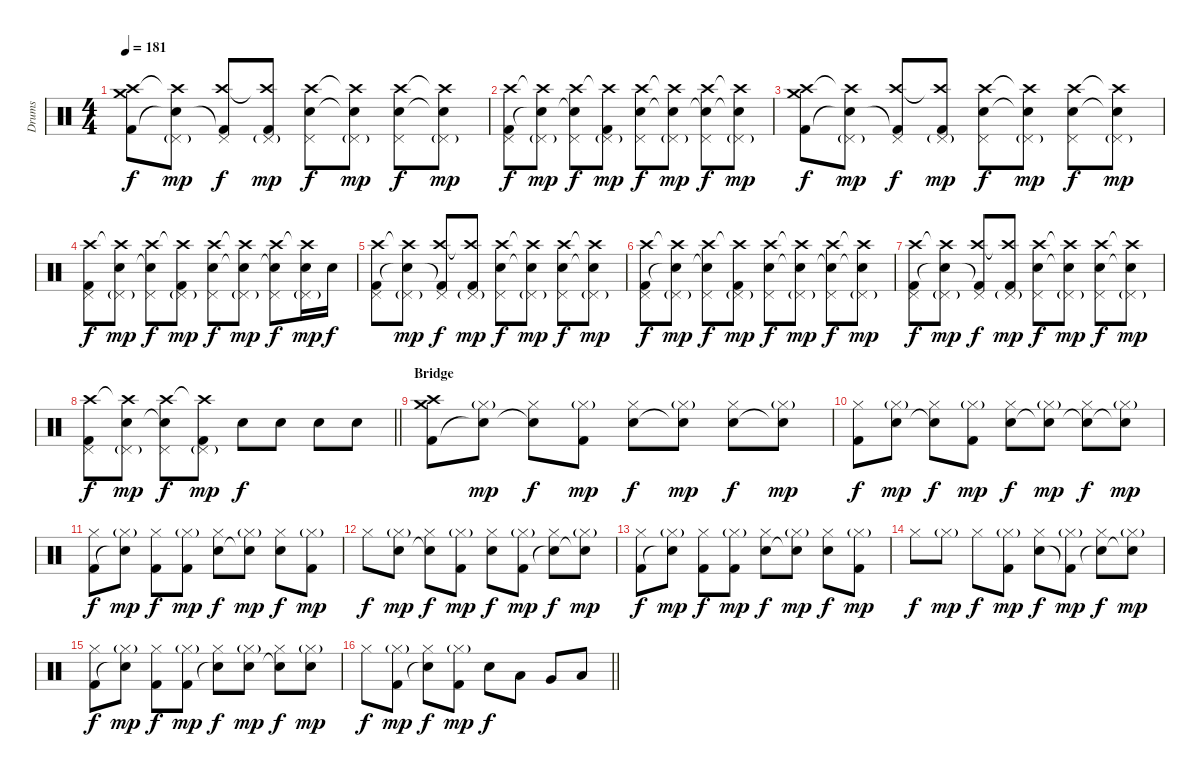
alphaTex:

\track ("Drums" "Drums") {instrument percussion}
\staff {score}
\articulation defaults
\ts (4 4)
\tempo 181
\clef neutral
\ks c
("Kick (hit) 2" "Crash medium (hit)" "Crash high (hit)").8{dy f} ("Snare (hit)"{t} "Pedal Hi-Hat (hit)"{g} "Crash high (hit)"{t}).8{dy mp} ("Kick (hit) 2"{t} "Pedal Hi-Hat (hit)" "Crash high (hit)").8{dy f} ("Kick (hit) 2" "Pedal Hi-Hat (hit)"{g} "Crash high (hit)"{t}).8{dy mp} ("Electric Snare (hit)" "Pedal Hi-Hat (hit)" "Crash high (hit)").8{dy f} ("Electric Snare (hit)"{t} "Pedal Hi-Hat (hit)"{g} "Crash high (hit)"{t}).8{dy mp} ("Electric Snare (hit)" "Pedal Hi-Hat (hit)" "Crash high (hit)").8{dy f} ("Snare (hit)"{t} "Pedal Hi-Hat (hit)"{g} "Crash high (hit)"{t}).8{dy mp} |
("Kick (hit) 2" "Pedal Hi-Hat (hit)" "Crash high (hit)").8{dy f} ("Snare (hit)"{t} "Pedal Hi-Hat (hit)"{g} "Crash high (hit)"{t}).8{dy mp} ("Snare (hit)"{t} "Pedal Hi-Hat (hit)" "Crash high (hit)").8{dy f} ("Kick (hit) 2" "Pedal Hi-Hat (hit)"{g} "Crash high (hit)"{t}).8{dy mp} ("Electric Snare (hit)" "Pedal Hi-Hat (hit)" "Crash high (hit)").8{dy f} ("Snare (hit)"{t} "Pedal Hi-Hat (hit)"{g} "Crash high (hit)"{t}).8{dy mp} ("Snare (hit)"{t} "Pedal Hi-Hat (hit)" "Crash high (hit)").8{dy f} ("Snare (hit)"{t} "Pedal Hi-Hat (hit)"{g} "Crash high (hit)"{t}).8{dy mp} |
("Kick (hit) 2" "Crash medium (hit)" "Crash high (hit)").8{dy f} ("Snare (hit)"{t} "Pedal Hi-Hat (hit)"{g} "Crash high (hit)"{t}).8{dy mp} ("Kick (hit) 2"{t} "Pedal Hi-Hat (hit)" "Crash high (hit)").8{dy f} ("Kick (hit) 2" "Pedal Hi-Hat (hit)"{g} "Crash high (hit)"{t}).8{dy mp} ("Electric Snare (hit)" "Pedal Hi-Hat (hit)" "Crash high (hit)").8{dy f} ("Electric Snare (hit)"{t} "Pedal Hi-Hat (hit)"{g} "Crash high (hit)"{t}).8{dy mp} ("Electric Snare (hit)" "Pedal Hi-Hat (hit)" "Crash high (hit)").8{dy f} ("Snare (hit)"{t} "Pedal Hi-Hat (hit)"{g} "Crash high (hit)"{t}).8{dy mp} |
("Kick (hit) 2" "Pedal Hi-Hat (hit)" "Crash high (hit)").8{dy f} ("Electric Snare (hit)" "Pedal Hi-Hat (hit)"{g} "Crash high (hit)"{t}).8{dy mp} ("Snare (hit)"{t} "Pedal Hi-Hat (hit)" "Crash high (hit)").8{dy f} ("Kick (hit) 2" "Pedal Hi-Hat (hit)"{g} "Crash high (hit)"{t}).8{dy mp} ("Electric Snare (hit)" "Pedal Hi-Hat (hit)" "Crash high (hit)").8{dy f} ("Snare (hit)"{t} "Pedal Hi-Hat (hit)"{g} "Crash high (hit)"{t}).8{dy mp} ("Snare (hit)"{t} "Pedal Hi-Hat (hit)" "Crash high (hit)").8{dy f} ("Electric Snare (hit)" "Pedal Hi-Hat (hit)"{g} "Crash high (hit)"{t}).16{dy mp} "Electric Snare (hit)".16{dy f} |
("Kick (hit) 2" "Pedal Hi-Hat (hit)" "Crash high (hit)").8 ("Snare (hit)"{t} "Pedal Hi-Hat (hit)"{g} "Crash high (hit)"{t}).8{dy mp} ("Kick (hit) 2"{t} "Pedal Hi-Hat (hit)" "Crash high (hit)").8{dy f} ("Kick (hit) 2" "Pedal Hi-Hat (hit)"{g} "Crash high (hit)"{t}).8{dy mp} ("Electric Snare (hit)" "Pedal Hi-Hat (hit)" "Crash high (hit)").8{dy f} ("Electric Snare (hit)"{t} "Pedal Hi-Hat (hit)"{g} "Crash high (hit)"{t}).8{dy mp} ("Electric Snare (hit)" "Pedal Hi-Hat (hit)" "Crash high (hit)").8{dy f} ("Snare (hit)"{t} "Pedal Hi-Hat (hit)"{g} "Crash high (hit)"{t}).8{dy mp} |
("Kick (hit) 2" "Pedal Hi-Hat (hit)" "Crash high (hit)").8{dy f} ("Snare (hit)"{t} "Pedal Hi-Hat (hit)"{g} "Crash high (hit)"{t}).8{dy mp} ("Snare (hit)"{t} "Pedal Hi-Hat (hit)" "Crash high (hit)").8{dy f} ("Kick (hit) 2" "Pedal Hi-Hat (hit)"{g} "Crash high (hit)"{t}).8{dy mp} ("Electric Snare (hit)" "Pedal Hi-Hat (hit)" "Crash high (hit)").8{dy f} ("Snare (hit)"{t} "Pedal Hi-Hat (hit)"{g} "Crash high (hit)"{t}).8{dy mp} ("Snare (hit)"{t} "Pedal Hi-Hat (hit)" "Crash high (hit)").8{dy f} ("Snare (hit)"{t} "Pedal Hi-Hat (hit)"{g} "Crash high (hit)"{t}).8{dy mp} |
("Kick (hit) 2" "Pedal Hi-Hat (hit)" "Crash high (hit)").8{dy f} ("Snare (hit)"{t} "Pedal Hi-Hat (hit)"{g} "Crash high (hit)"{t}).8{dy mp} ("Kick (hit) 2"{t} "Pedal Hi-Hat (hit)" "Crash high (hit)").8{dy f} ("Kick (hit) 2" "Pedal Hi-Hat (hit)"{g} "Crash high (hit)"{t}).8{dy mp} ("Electric Snare (hit)" "Pedal Hi-Hat (hit)" "Crash high (hit)").8{dy f} ("Electric Snare (hit)"{t} "Pedal Hi-Hat (hit)"{g} "Crash high (hit)"{t}).8{dy mp} ("Electric Snare (hit)" "Pedal Hi-Hat (hit)" "Crash high (hit)").8{dy f} ("Snare (hit)"{t} "Pedal Hi-Hat (hit)"{g} "Crash high (hit)"{t}).8{dy mp} |
\barLineRight lightlight
("Kick (hit) 2" "Pedal Hi-Hat (hit)" "Crash high (hit)").8{dy f} ("Electric Snare (hit)" "Pedal Hi-Hat (hit)"{g} "Crash high (hit)"{t}).8{dy mp} ("Snare (hit)"{t} "Pedal Hi-Hat (hit)" "Crash high (hit)").8{dy f} ("Kick (hit) 2" "Pedal Hi-Hat (hit)"{g} "Crash high (hit)"{t}).8{dy mp} "Electric Snare (hit)".8{dy f} "Electric Snare (hit)".8 "Electric Snare (hit)".8 "Electric Snare (hit)".8 |
\section ("" "Bridge")
("Kick (hit) 2" "Crash medium (hit)" "Crash high (hit)").8 ("Snare (hit)"{t} "Hi-Hat (closed)"{g}).8{dy mp} ("Snare (hit)"{t} "Hi-Hat (closed)").8{dy f} ("Kick (hit) 2" "Hi-Hat (closed)"{g}).8{dy mp} ("Electric Snare (hit)" "Hi-Hat (closed)").8{dy f} ("Snare (hit)"{t} "Hi-Hat (closed)"{g}).8{dy mp} ("Electric Snare (hit)" "Hi-Hat (closed)").8{dy f} ("Snare (hit)"{t} "Hi-Hat (closed)"{g}).8{dy mp} |
("Kick (hit) 2" "Hi-Hat (closed)").8{dy f} ("Electric Snare (hit)" "Hi-Hat (closed)"{g}).8{dy mp} ("Snare (hit)"{t} "Hi-Hat (closed)").8{dy f} ("Kick (hit) 2" "Hi-Hat (closed)"{g}).8{dy mp} ("Electric Snare (hit)" "Hi-Hat (closed)").8{dy f} ("Snare (hit)"{t} "Hi-Hat (closed)"{g}).8{dy mp} ("Snare (hit)"{t} "Hi-Hat (closed)").8{dy f} ("Snare (hit)"{t} "Hi-Hat (closed)"{g}).8{dy mp} |
("Kick (hit) 2" "Hi-Hat (closed)").8{dy f} ("Snare (hit)"{t} "Hi-Hat (closed)"{g}).8{dy mp} ("Kick (hit) 2" "Hi-Hat (closed)").8{dy f} ("Kick (hit) 2" "Hi-Hat (closed)"{g}).8{dy mp} ("Electric Snare (hit)" "Hi-Hat (closed)").8{dy f} ("Snare (hit)"{t} "Hi-Hat (closed)"{g}).8{dy mp} ("Electric Snare (hit)" "Hi-Hat (closed)").8{dy f} ("Kick (hit) 2" "Hi-Hat (closed)"{g}).8{dy mp} |
"Hi-Hat (closed)".8{dy f} ("Electric Snare (hit)" "Hi-Hat (closed)"{g}).8{dy mp} ("Snare (hit)"{t} "Hi-Hat (closed)").8{dy f} ("Kick (hit) 2" "Hi-Hat (closed)"{g}).8{dy mp} ("Electric Snare (hit)" "Hi-Hat (closed)").8{dy f} ("Kick (hit) 2" "Hi-Hat (closed)"{g}).8{dy mp} ("Snare (hit)"{t} "Hi-Hat (closed)").8{dy f} ("Snare (hit)"{t} "Hi-Hat (closed)"{g}).8{dy mp} |
("Kick (hit) 2" "Hi-Hat (closed)").8{dy f} ("Snare (hit)"{t} "Hi-Hat (closed)"{g}).8{dy mp} ("Kick (hit) 2" "Hi-Hat (closed)").8{dy f} ("Kick (hit) 2" "Hi-Hat (closed)"{g}).8{dy mp} ("Electric Snare (hit)" "Hi-Hat (closed)").8{dy f} ("Snare (hit)"{t} "Hi-Hat (closed)"{g}).8{dy mp} ("Electric Snare (hit)" "Hi-Hat (closed)").8{dy f} ("Kick (hit) 2" "Hi-Hat (closed)"{g}).8{dy mp} |
"Hi-Hat (closed)".8{dy f} "Hi-Hat (closed)"{g}.8{dy mp} "Hi-Hat (closed)".8{dy f} ("Kick (hit) 2" "Hi-Hat (closed)"{g}).8{dy mp} ("Electric Snare (hit)" "Hi-Hat (closed)").8{dy f} ("Kick (hit) 2"{t} "Hi-Hat (closed)"{g}).8{dy mp} ("Snare (hit)"{t} "Hi-Hat (closed)").8{dy f} ("Snare (hit)"{t} "Hi-Hat (closed)"{g}).8{dy mp} |
("Kick (hit) 2" "Hi-Hat (closed)").8{dy f} ("Snare (hit)"{t} "Hi-Hat (closed)"{g}).8{dy mp} ("Kick (hit) 2" "Hi-Hat (closed)").8{dy f} ("Kick (hit) 2" "Hi-Hat (closed)"{g}).8{dy mp} ("Electric Snare (hit)"{t} "Hi-Hat (closed)").8{dy f} ("Electric Snare (hit)" "Hi-Hat (closed)"{g}).8{dy mp} ("Electric Snare (hit)"{t} "Hi-Hat (closed)").8{dy f} ("Electric Snare (hit)" "Hi-Hat (closed)"{g}).8{dy mp} |
\barLineRight lightlight "Hi-Hat (closed)".8{dy f}
("Kick (hit) 2" "Hi-Hat (closed)"{g}).8{dy mp} ("Snare (hit)"{t} "Hi-Hat (closed)").8{dy f} ("Kick (hit) 2" "Hi-Hat (closed)"{g}).8{dy mp} "Electric Snare (hit)".8{dy f} "Low Tom (hit)".8 "Very Low Tom (hit)".8 "Low Floor Tom (hit)".8
